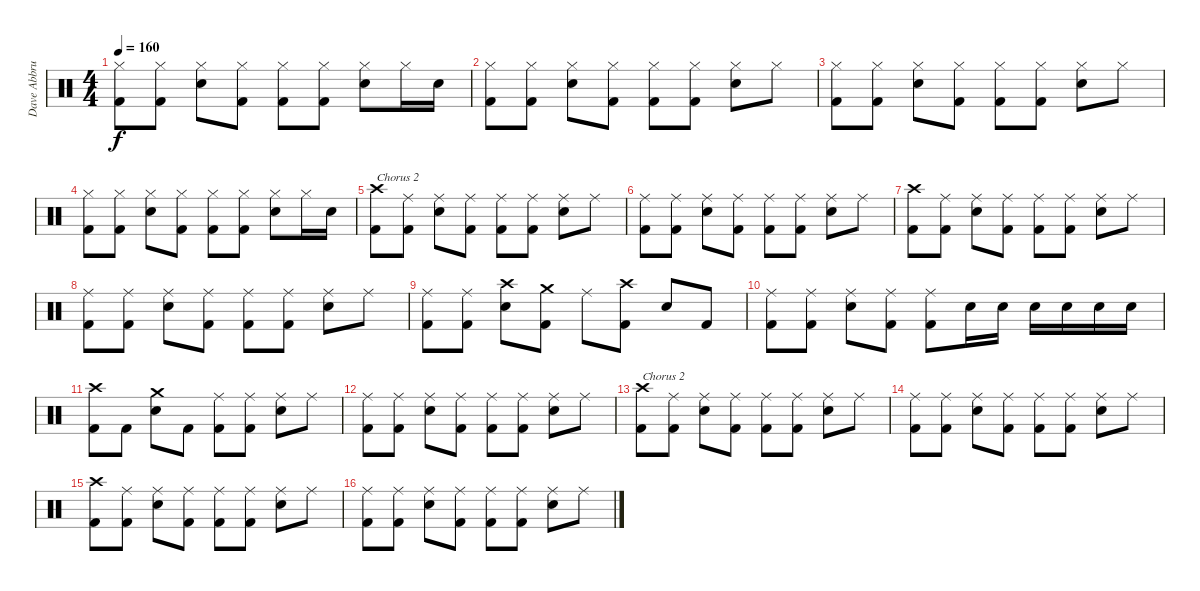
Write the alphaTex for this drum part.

\track ("Dave Abbruzzese" "Dave Abbru") {instrument percussion}
\staff {score}
\articulation defaults
\ts (4 4)
\tempo 160
\clef neutral
\ks c
("Hi-Hat (closed)" "Kick (hit) 2").8{dy f} ("Hi-Hat (closed)" "Kick (hit) 2").8 ("Hi-Hat (closed)" "Snare (hit) 2").8 ("Hi-Hat (closed)" "Kick (hit) 2").8 ("Hi-Hat (closed)" "Kick (hit) 2").8 ("Hi-Hat (closed)" "Kick (hit) 2").8 ("Hi-Hat (closed)" "Snare (hit) 2").8 "Hi-Hat (closed)".16 "Snare (hit) 2".16 |
("Hi-Hat (closed)" "Kick (hit) 2").8 ("Hi-Hat (closed)" "Kick (hit) 2").8 ("Hi-Hat (closed)" "Snare (hit) 2").8 ("Hi-Hat (closed)" "Kick (hit) 2").8 ("Hi-Hat (closed)" "Kick (hit) 2").8 ("Hi-Hat (closed)" "Kick (hit) 2").8 ("Hi-Hat (closed)" "Snare (hit) 2").8 "Hi-Hat (closed)".8 |
("Hi-Hat (closed)" "Kick (hit) 2").8 ("Hi-Hat (closed)" "Kick (hit) 2").8 ("Hi-Hat (closed)" "Snare (hit) 2").8 ("Hi-Hat (closed)" "Kick (hit) 2").8 ("Hi-Hat (closed)" "Kick (hit) 2").8 ("Hi-Hat (closed)" "Kick (hit) 2").8 ("Hi-Hat (closed)" "Snare (hit) 2").8 "Hi-Hat (closed)".8 |
("Hi-Hat (closed)" "Kick (hit) 2").8 ("Hi-Hat (closed)" "Kick (hit) 2").8 ("Hi-Hat (closed)" "Snare (hit) 2").8 ("Hi-Hat (closed)" "Kick (hit) 2").8 ("Hi-Hat (closed)" "Kick (hit) 2").8 ("Hi-Hat (closed)" "Kick (hit) 2").8 ("Hi-Hat (closed)" "Snare (hit) 2").8 "Hi-Hat (closed)".16 "Snare (hit) 2".16 |
("Crash high (hit)" "Kick (hit) 2").8{txt "Chorus 2"} ("Ride (middle)" "Kick (hit) 2").8 ("Ride (middle)" "Snare (hit) 2").8 ("Ride (middle)" "Kick (hit) 2").8 ("Ride (middle)" "Kick (hit) 2").8 ("Ride (middle)" "Kick (hit) 2").8 ("Ride (middle)" "Snare (hit) 2").8 "Ride (middle)".8 |
("Ride (middle)" "Kick (hit) 2").8 ("Ride (middle)" "Kick (hit) 2").8 ("Ride (middle)" "Snare (hit) 2").8 ("Ride (middle)" "Kick (hit) 2").8 ("Ride (middle)" "Kick (hit) 2").8 ("Ride (middle)" "Kick (hit) 2").8 ("Ride (middle)" "Snare (hit) 2").8 "Ride (middle)".8 |
("Crash high (hit)" "Kick (hit) 2").8 ("Ride (middle)" "Kick (hit) 2").8 ("Ride (middle)" "Snare (hit) 2").8 ("Ride (middle)" "Kick (hit) 2").8 ("Ride (middle)" "Kick (hit) 2").8 ("Ride (middle)" "Kick (hit) 2").8 ("Ride (middle)" "Snare (hit) 2").8 "Ride (middle)".8 |
("Ride (middle)" "Kick (hit) 2").8 ("Ride (middle)" "Kick (hit) 2").8 ("Ride (middle)" "Snare (hit) 2").8 ("Ride (middle)" "Kick (hit) 2").8 ("Ride (middle)" "Kick (hit) 2").8 ("Ride (middle)" "Kick (hit) 2").8 ("Ride (middle)" "Snare (hit) 2").8 "Ride (middle)".8 |
("Ride (middle)" "Kick (hit) 2").8 ("Ride (middle)" "Kick (hit) 2").8 ("Crash high (hit)" "Snare (hit) 2").8 ("Crash medium (hit)" "Kick (hit) 2").8 "Ride (middle)".8 ("Crash high (hit)" "Kick (hit) 2").8 "Snare (hit) 2".8 "Kick (hit) 2".8 |
("Ride (middle)" "Kick (hit) 2").8 ("Ride (middle)" "Kick (hit) 2").8 ("Ride (middle)" "Snare (hit) 2").8 ("Ride (middle)" "Kick (hit) 2").8 ("Ride (middle)" "Kick (hit) 2").8 "Snare (hit) 2".16 "Snare (hit) 2".16 "Snare (hit) 2".16 "Snare (hit) 2".16 "Snare (hit) 2".16 "Snare (hit) 2".16 |
("Crash high (hit)" "Kick (hit) 2").8 "Kick (hit) 2".8 ("Crash medium (hit)" "Snare (hit) 2").8 "Kick (hit) 2".8 ("Ride (middle)" "Kick (hit) 2").8 ("Ride (middle)" "Kick (hit) 2").8 ("Ride (middle)" "Snare (hit) 2").8 "Ride (middle)".8 |
("Ride (middle)" "Kick (hit) 2").8 ("Ride (middle)" "Kick (hit) 2").8 ("Ride (middle)" "Snare (hit) 2").8 ("Ride (middle)" "Kick (hit) 2").8 ("Ride (middle)" "Kick (hit) 2").8 ("Ride (middle)" "Kick (hit) 2").8 ("Ride (middle)" "Snare (hit) 2").8 "Ride (middle)".8 |
("Crash high (hit)" "Kick (hit) 2").8{txt "Chorus 2"} ("Ride (middle)" "Kick (hit) 2").8 ("Ride (middle)" "Snare (hit) 2").8 ("Ride (middle)" "Kick (hit) 2").8 ("Ride (middle)" "Kick (hit) 2").8 ("Ride (middle)" "Kick (hit) 2").8 ("Ride (middle)" "Snare (hit) 2").8 "Ride (middle)".8 |
("Ride (middle)" "Kick (hit) 2").8 ("Ride (middle)" "Kick (hit) 2").8 ("Ride (middle)" "Snare (hit) 2").8 ("Ride (middle)" "Kick (hit) 2").8 ("Ride (middle)" "Kick (hit) 2").8 ("Ride (middle)" "Kick (hit) 2").8 ("Ride (middle)" "Snare (hit) 2").8 "Ride (middle)".8 |
("Crash high (hit)" "Kick (hit) 2").8 ("Ride (middle)" "Kick (hit) 2").8 ("Ride (middle)" "Snare (hit) 2").8 ("Ride (middle)" "Kick (hit) 2").8 ("Ride (middle)" "Kick (hit) 2").8 ("Ride (middle)" "Kick (hit) 2").8 ("Ride (middle)" "Snare (hit) 2").8 "Ride (middle)".8 |
("Ride (middle)" "Kick (hit) 2").8 ("Ride (middle)" "Kick (hit) 2").8 ("Ride (middle)" "Snare (hit) 2").8 ("Ride (middle)" "Kick (hit) 2").8 ("Ride (middle)" "Kick (hit) 2").8 ("Ride (middle)" "Kick (hit) 2").8 ("Ride (middle)" "Snare (hit) 2").8 "Ride (middle)".8
